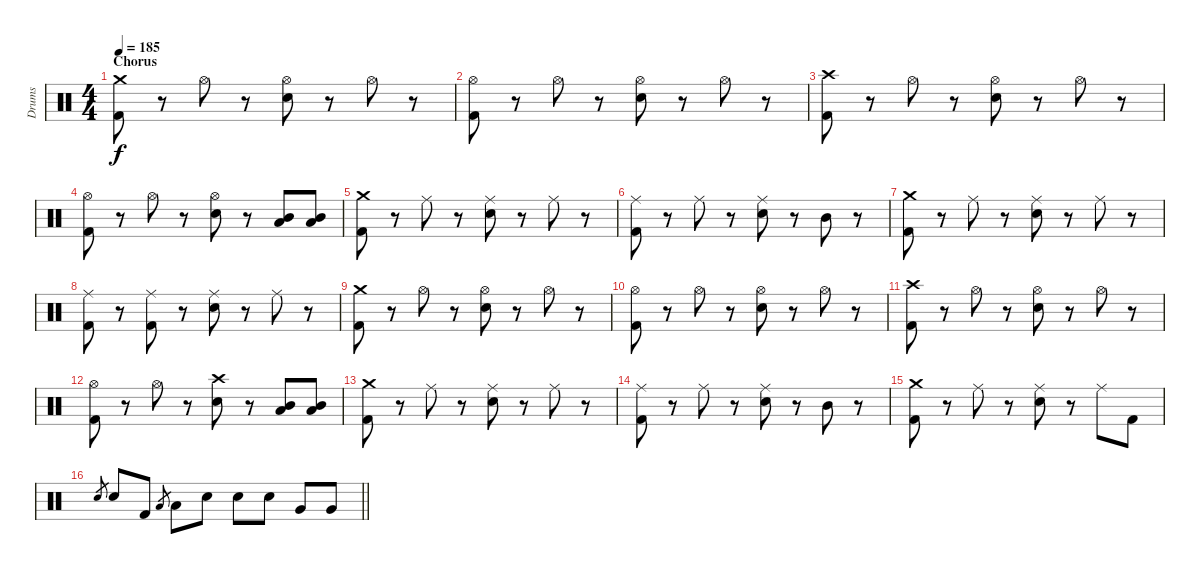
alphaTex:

\track ("Drums" "Drums") {instrument percussion}
\staff {score}
\articulation defaults
\ts (4 4)
\section ("" "Chorus")
\tempo 185
\clef neutral
\ks c
("Crash medium (hit)" "Kick (hit) 2").8{dy f} r.8 "Hi-Hat (open)".8 r.8 ("Hi-Hat (open)" "Electric Snare (hit)").8 r.8 "Hi-Hat (open)".8 r.8 |
("Hi-Hat (open)" "Kick (hit) 2").8 r.8 "Hi-Hat (open)".8 r.8 ("Hi-Hat (open)" "Electric Snare (hit)").8 r.8 "Hi-Hat (open)".8 r.8 |
("Crash high (hit)" "Kick (hit) 2").8 r.8 "Hi-Hat (open)".8 r.8 ("Hi-Hat (open)" "Electric Snare (hit)").8 r.8 "Hi-Hat (open)".8 r.8 |
("Hi-Hat (open)" "Kick (hit) 2").8 r.8 "Hi-Hat (open)".8 r.8 ("Hi-Hat (open)" "Electric Snare (hit)").8 r.8 ("Mid Tom (hit)" "Low Tom (hit)").8 ("Mid Tom (hit)" "Low Tom (hit)").8 |
("Crash medium (hit)" "Kick (hit) 2").8 r.8 "Ride (middle)".8 r.8 ("Ride (middle)" "Electric Snare (hit)").8 r.8 "Ride (middle)".8 r.8 |
("Ride (middle)" "Kick (hit) 2").8 r.8 "Ride (middle)".8 r.8 ("Ride (middle)" "Electric Snare (hit)").8 r.8 "Mid Tom (hit)".8 r.8 |
("Crash medium (hit)" "Kick (hit) 2").8 r.8 "Ride (middle)".8 r.8 ("Ride (middle)" "Electric Snare (hit)").8 r.8 "Ride (middle)".8 r.8 |
("Ride (middle)" "Kick (hit) 2").8 r.8 ("Ride (middle)" "Kick (hit) 2").8 r.8 ("Ride (middle)" "Electric Snare (hit)").8 r.8 "Ride (middle)".8 r.8 |
("Crash medium (hit)" "Kick (hit) 2").8 r.8 "Hi-Hat (open)".8 r.8 ("Hi-Hat (open)" "Electric Snare (hit)").8 r.8 "Hi-Hat (open)".8 r.8 |
("Hi-Hat (open)" "Kick (hit) 2").8 r.8 "Hi-Hat (open)".8 r.8 ("Hi-Hat (open)" "Electric Snare (hit)").8 r.8 "Hi-Hat (open)".8 r.8 |
("Crash high (hit)" "Kick (hit) 2").8 r.8 "Hi-Hat (open)".8 r.8 ("Hi-Hat (open)" "Electric Snare (hit)").8 r.8 "Hi-Hat (open)".8 r.8 |
("Hi-Hat (open)" "Kick (hit) 2").8 r.8 "Hi-Hat (open)".8 r.8 ("Crash high (hit)" "Electric Snare (hit)").8 r.8 ("Mid Tom (hit)" "Low Tom (hit)").8 ("Mid Tom (hit)" "Low Tom (hit)").8 |
("Crash medium (hit)" "Kick (hit) 2").8 r.8 "Ride (middle)".8 r.8 ("Ride (middle)" "Electric Snare (hit)").8 r.8 "Ride (middle)".8 r.8 |
("Ride (middle)" "Kick (hit) 2").8 r.8 "Ride (middle)".8 r.8 ("Ride (middle)" "Electric Snare (hit)").8 r.8 "Mid Tom (hit)".8 r.8 |
("Crash medium (hit)" "Kick (hit) 2").8 r.8 "Ride (middle)".8 r.8 ("Ride (middle)" "Electric Snare (hit)").8 r.8 "Ride (middle)".8 "Kick (hit) 2".8 |
\barLineRight lightlight "Electric Snare (hit)".8{gr} "Electric Snare (hit)".8 "Kick (hit) 2".8 "Low Tom (hit)".8{gr} "Low Tom (hit)".8 "Electric Snare (hit)".8 "Electric Snare (hit)".8 "Electric Snare (hit)".8 "Very Low Tom (hit)".8 "Very Low Tom (hit)".8
